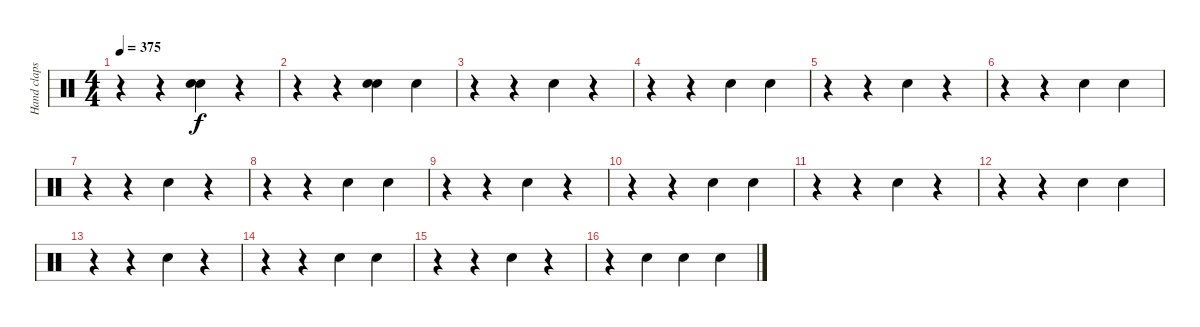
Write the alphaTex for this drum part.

\track ("Hand claps" "Hand claps") {instrument percussion}
\staff {score}
\articulation defaults
\ts (4 4)
\tempo 375
\clef neutral
\ks c
r.4{dy f} r.4 ("Hand Clap (hit)" "Hand Clap (hit)").4 r.4 |
r.4 r.4 ("Hand Clap (hit)" "Hand Clap (hit)").4 "Hand Clap (hit)".4 |
r.4 r.4 "Hand Clap (hit)".4 r.4 |
r.4 r.4 "Hand Clap (hit)".4 "Hand Clap (hit)".4 |
r.4 r.4 "Hand Clap (hit)".4 r.4 |
r.4 r.4 "Hand Clap (hit)".4 "Hand Clap (hit)".4 |
r.4 r.4 "Hand Clap (hit)".4 r.4 |
r.4 r.4 "Hand Clap (hit)".4 "Hand Clap (hit)".4 |
r.4 r.4 "Hand Clap (hit)".4 r.4 |
r.4 r.4 "Hand Clap (hit)".4 "Hand Clap (hit)".4 |
r.4 r.4 "Hand Clap (hit)".4 r.4 |
r.4 r.4 "Hand Clap (hit)".4 "Hand Clap (hit)".4 |
r.4 r.4 "Hand Clap (hit)".4 r.4 |
r.4 r.4 "Hand Clap (hit)".4 "Hand Clap (hit)".4 |
r.4 r.4 "Hand Clap (hit)".4 r.4 |
r.4 "Hand Clap (hit)".4 "Hand Clap (hit)".4 "Hand Clap (hit)".4
